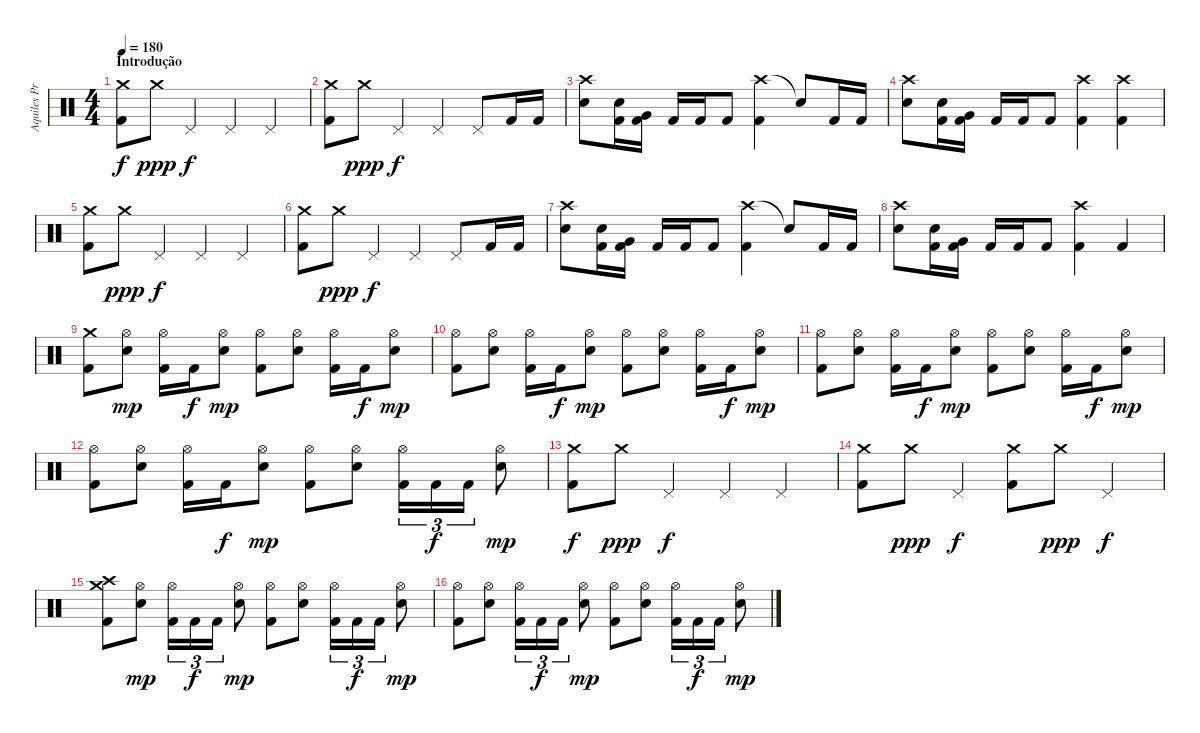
\track ("Aquiles Priester" "Aquiles Pr") {instrument percussion}
\staff {score}
\articulation defaults
\ts (4 4)
\section ("" "Introdução")
\tempo 180
\clef neutral
\ks c
("Crash medium (hit)" "Kick (hit) 2").8{dy f} "Crash medium (hit)".8{dy ppp} "Pedal Hi-Hat (hit)".4{dy f} "Pedal Hi-Hat (hit)".4 "Pedal Hi-Hat (hit)".4 |
("Crash medium (hit)" "Kick (hit) 2").8 "Crash medium (hit)".8{dy ppp} "Pedal Hi-Hat (hit)".4{dy f} "Pedal Hi-Hat (hit)".4 "Pedal Hi-Hat (hit)".8 "Kick (hit) 2".16 "Kick (hit) 2".16 |
("Crash high (hit)" "Snare (hit) 2").8 ("Snare (hit) 2" "Kick (hit) 2").16 ("Very Low Tom (hit)" "Kick (hit) 2").16 "Kick (hit) 2".16 "Kick (hit) 2".16 "Kick (hit) 2".8 ("Crash high (hit)" "Kick (hit) 2").4 "Snare (hit)"{t}.8 "Kick (hit) 2".16 "Kick (hit) 2".16 |
("Crash high (hit)" "Snare (hit) 2").8 ("Snare (hit) 2" "Kick (hit) 2").16 ("Very Low Tom (hit)" "Kick (hit) 2").16 "Kick (hit) 2".16 "Kick (hit) 2".16 "Kick (hit) 2".8 ("Crash high (hit)" "Kick (hit) 2").4 ("Crash high (hit)" "Kick (hit) 2").4 |
("Crash medium (hit)" "Kick (hit) 2").8 "Crash medium (hit)".8{dy ppp} "Pedal Hi-Hat (hit)".4{dy f} "Pedal Hi-Hat (hit)".4 "Pedal Hi-Hat (hit)".4 |
("Crash medium (hit)" "Kick (hit) 2").8 "Crash medium (hit)".8{dy ppp} "Pedal Hi-Hat (hit)".4{dy f} "Pedal Hi-Hat (hit)".4 "Pedal Hi-Hat (hit)".8 "Kick (hit) 2".16 "Kick (hit) 2".16 |
("Crash high (hit)" "Snare (hit) 2").8 ("Snare (hit) 2" "Kick (hit) 2").16 ("Very Low Tom (hit)" "Kick (hit) 2").16 "Kick (hit) 2".16 "Kick (hit) 2".16 "Kick (hit) 2".8 ("Crash high (hit)" "Kick (hit) 2").4 "Snare (hit)"{t}.8 "Kick (hit) 2".16 "Kick (hit) 2".16 |
("Crash high (hit)" "Snare (hit) 2").8 ("Snare (hit) 2" "Kick (hit) 2").16 ("Very Low Tom (hit)" "Kick (hit) 2").16 "Kick (hit) 2".16 "Kick (hit) 2".16 "Kick (hit) 2".8 ("Crash high (hit)" "Kick (hit) 2").4 "Kick (hit) 2".4 |
("Crash medium (hit)" "Kick (hit) 2").8 ("Hi-Hat (open)" "Snare (hit) 2").8{dy mp} ("Hi-Hat (open)" "Kick (hit) 2").16 "Kick (hit) 2".16{dy f} ("Hi-Hat (open)" "Snare (hit) 2").8{dy mp} ("Hi-Hat (open)" "Kick (hit) 2").8 ("Hi-Hat (open)" "Snare (hit) 2").8 ("Hi-Hat (open)" "Kick (hit) 2").16 "Kick (hit) 2".16{dy f} ("Hi-Hat (open)" "Snare (hit) 2").8{dy mp} |
("Hi-Hat (open)" "Kick (hit) 2").8 ("Hi-Hat (open)" "Snare (hit) 2").8 ("Hi-Hat (open)" "Kick (hit) 2").16 "Kick (hit) 2".16{dy f} ("Hi-Hat (open)" "Snare (hit) 2").8{dy mp} ("Hi-Hat (open)" "Kick (hit) 2").8 ("Hi-Hat (open)" "Snare (hit) 2").8 ("Hi-Hat (open)" "Kick (hit) 2").16 "Kick (hit) 2".16{dy f} ("Hi-Hat (open)" "Snare (hit) 2").8{dy mp} |
("Hi-Hat (open)" "Kick (hit) 2").8 ("Hi-Hat (open)" "Snare (hit) 2").8 ("Hi-Hat (open)" "Kick (hit) 2").16 "Kick (hit) 2".16{dy f} ("Hi-Hat (open)" "Snare (hit) 2").8{dy mp} ("Hi-Hat (open)" "Kick (hit) 2").8 ("Hi-Hat (open)" "Snare (hit) 2").8 ("Hi-Hat (open)" "Kick (hit) 2").16 "Kick (hit) 2".16{dy f} ("Hi-Hat (open)" "Snare (hit) 2").8{dy mp} |
("Hi-Hat (open)" "Kick (hit) 2").8 ("Hi-Hat (open)" "Snare (hit) 2").8 ("Hi-Hat (open)" "Kick (hit) 2").16 "Kick (hit) 2".16{dy f} ("Hi-Hat (open)" "Snare (hit) 2").8{dy mp} ("Hi-Hat (open)" "Kick (hit) 2").8 ("Hi-Hat (open)" "Snare (hit) 2").8 ("Hi-Hat (open)" "Kick (hit) 2").16{tu (3 2)} "Kick (hit) 2".16{tu (3 2) dy f} "Kick (hit) 2".16{tu (3 2)} ("Hi-Hat (open)" "Snare (hit) 2").8{dy mp} |
("Crash medium (hit)" "Kick (hit) 2").8{dy f} "Crash medium (hit)".8{dy ppp} "Pedal Hi-Hat (hit)".4{dy f} "Pedal Hi-Hat (hit)".4 "Pedal Hi-Hat (hit)".4 |
("Crash medium (hit)" "Kick (hit) 2").8 "Crash medium (hit)".8{dy ppp} "Pedal Hi-Hat (hit)".4{dy f} ("Crash medium (hit)" "Kick (hit) 2").8 "Crash medium (hit)".8{dy ppp} "Pedal Hi-Hat (hit)".4{dy f} |
("Crash medium (hit)" "Crash high (hit)" "Kick (hit) 2").8 ("Hi-Hat (open)" "Snare (hit) 2").8{dy mp} ("Hi-Hat (open)" "Kick (hit) 2").16{tu (3 2)} "Kick (hit) 2".16{tu (3 2) dy f} "Kick (hit) 2".16{tu (3 2)} ("Hi-Hat (open)" "Snare (hit) 2").8{dy mp} ("Hi-Hat (open)" "Kick (hit) 2").8 ("Hi-Hat (open)" "Snare (hit) 2").8 ("Hi-Hat (open)" "Kick (hit) 2").16{tu (3 2)} "Kick (hit) 2".16{tu (3 2) dy f} "Kick (hit) 2".16{tu (3 2)} ("Hi-Hat (open)" "Snare (hit) 2").8{dy mp} |
("Hi-Hat (open)" "Kick (hit) 2").8 ("Hi-Hat (open)" "Snare (hit) 2").8 ("Hi-Hat (open)" "Kick (hit) 2").16{tu (3 2)} "Kick (hit) 2".16{tu (3 2) dy f} "Kick (hit) 2".16{tu (3 2)} ("Hi-Hat (open)" "Snare (hit) 2").8{dy mp} ("Hi-Hat (open)" "Kick (hit) 2").8 ("Hi-Hat (open)" "Snare (hit) 2").8 ("Hi-Hat (open)" "Kick (hit) 2").16{tu (3 2)} "Kick (hit) 2".16{tu (3 2) dy f} "Kick (hit) 2".16{tu (3 2)} ("Hi-Hat (open)" "Snare (hit) 2").8{dy mp}
